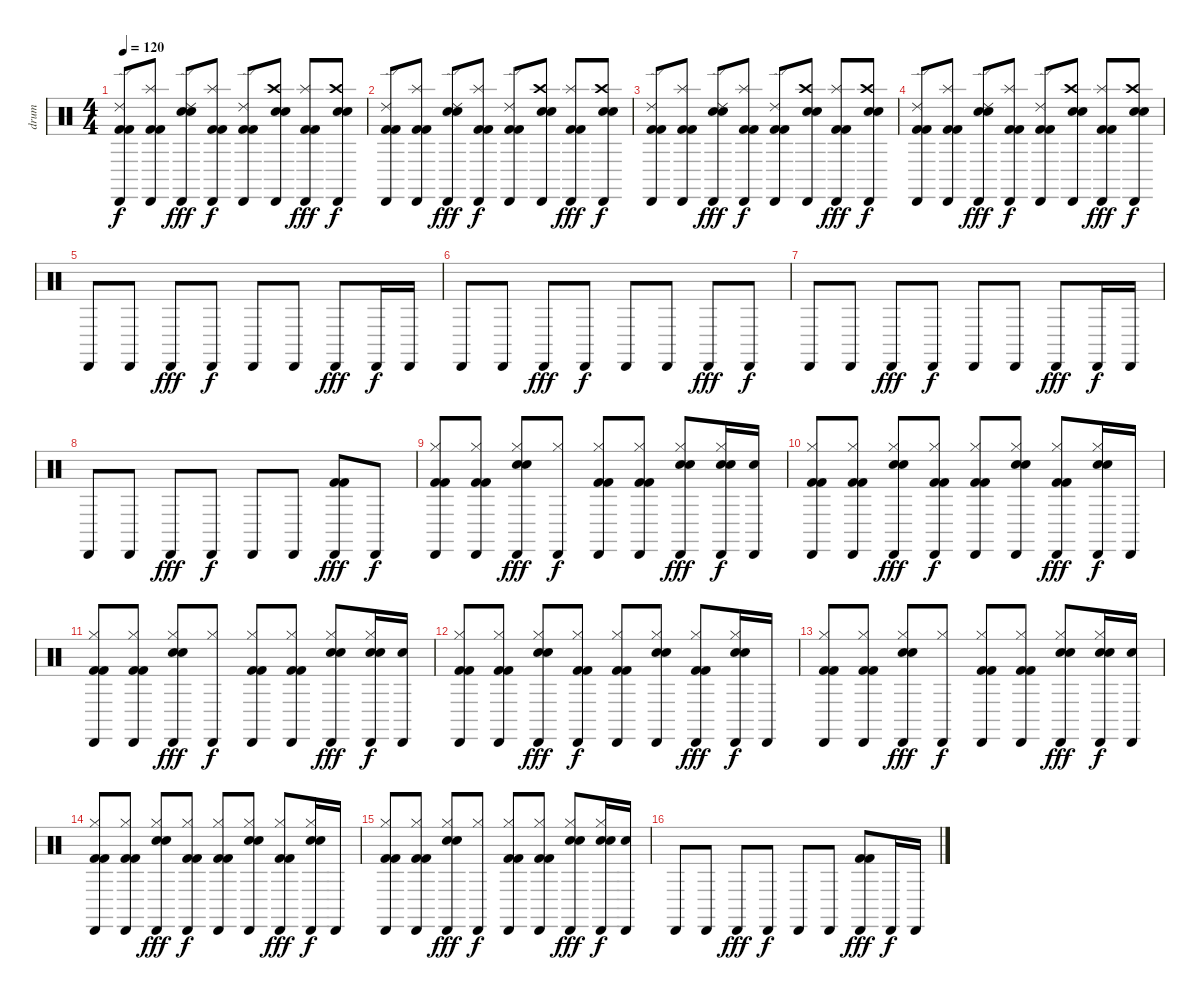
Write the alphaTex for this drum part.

\track ("drum" "drum") {instrument percussion}
\staff {score}
\articulation defaults
\ts (4 4)
\tempo 120
\clef neutral
\ks c
("Cabasa (hit)" "Ride (edge) 2" "Kick (hit) 2" "Kick (hit) 2").8{dy f} ("Cabasa (hit)" "Splash (hit)" "Kick (hit) 2" "Kick (hit) 2").8 ("Cabasa (hit)" "Ride (edge) 2" "Snare (hit) 2" "Snare (hit) 2").8{dy fff} ("Cabasa (hit)" "Splash (hit)" "Kick (hit) 2" "Kick (hit) 2").8{dy f} ("Cabasa (hit)" "Ride (edge) 2" "Kick (hit) 2" "Kick (hit) 2").8 ("Cabasa (hit)" "Crash high (hit)" "Snare (hit) 2" "Snare (hit) 2").8 ("Cabasa (hit)" "Splash (hit)" "Kick (hit) 2" "Kick (hit) 2").8{dy fff} ("Cabasa (hit)" "Crash high (hit)" "Snare (hit) 2" "Snare (hit) 2").8{dy f} |
("Cabasa (hit)" "Ride (edge) 2" "Kick (hit) 2" "Kick (hit) 2").8 ("Cabasa (hit)" "Splash (hit)" "Kick (hit) 2" "Kick (hit) 2").8 ("Cabasa (hit)" "Ride (edge) 2" "Snare (hit) 2" "Snare (hit) 2").8{dy fff} ("Cabasa (hit)" "Splash (hit)" "Kick (hit) 2" "Kick (hit) 2").8{dy f} ("Cabasa (hit)" "Ride (edge) 2" "Kick (hit) 2" "Kick (hit) 2").8 ("Cabasa (hit)" "Crash high (hit)" "Snare (hit) 2" "Snare (hit) 2").8 ("Cabasa (hit)" "Splash (hit)" "Kick (hit) 2" "Kick (hit) 2").8{dy fff} ("Cabasa (hit)" "Crash high (hit)" "Snare (hit) 2" "Snare (hit) 2").8{dy f} |
("Cabasa (hit)" "Ride (edge) 2" "Kick (hit) 2" "Kick (hit) 2").8 ("Cabasa (hit)" "Splash (hit)" "Kick (hit) 2" "Kick (hit) 2").8 ("Cabasa (hit)" "Ride (edge) 2" "Snare (hit) 2" "Snare (hit) 2").8{dy fff} ("Cabasa (hit)" "Splash (hit)" "Kick (hit) 2" "Kick (hit) 2").8{dy f} ("Cabasa (hit)" "Ride (edge) 2" "Kick (hit) 2" "Kick (hit) 2").8 ("Cabasa (hit)" "Crash high (hit)" "Snare (hit) 2" "Snare (hit) 2").8 ("Cabasa (hit)" "Splash (hit)" "Kick (hit) 2" "Kick (hit) 2").8{dy fff} ("Cabasa (hit)" "Crash high (hit)" "Snare (hit) 2" "Snare (hit) 2").8{dy f} |
("Cabasa (hit)" "Ride (edge) 2" "Kick (hit) 2" "Kick (hit) 2").8 ("Cabasa (hit)" "Splash (hit)" "Kick (hit) 2" "Kick (hit) 2").8 ("Cabasa (hit)" "Ride (edge) 2" "Snare (hit) 2" "Snare (hit) 2").8{dy fff} ("Cabasa (hit)" "Splash (hit)" "Kick (hit) 2" "Kick (hit) 2").8{dy f} ("Cabasa (hit)" "Ride (edge) 2" "Kick (hit) 2" "Kick (hit) 2").8 ("Cabasa (hit)" "Crash high (hit)" "Snare (hit) 2" "Snare (hit) 2").8 ("Cabasa (hit)" "Splash (hit)" "Kick (hit) 2" "Kick (hit) 2").8{dy fff} ("Cabasa (hit)" "Crash high (hit)" "Snare (hit) 2" "Snare (hit) 2").8{dy f} |
"Cabasa (hit)".8 "Cabasa (hit)".8 "Cabasa (hit)".8{dy fff} "Cabasa (hit)".8{dy f} "Cabasa (hit)".8 "Cabasa (hit)".8 "Cabasa (hit)".8{dy fff} "Cabasa (hit)".16{dy f} "Cabasa (hit)".16 |
"Cabasa (hit)".8 "Cabasa (hit)".8 "Cabasa (hit)".8{dy fff} "Cabasa (hit)".8{dy f} "Cabasa (hit)".8 "Cabasa (hit)".8 "Cabasa (hit)".8{dy fff} "Cabasa (hit)".8{dy f} |
"Cabasa (hit)".8 "Cabasa (hit)".8 "Cabasa (hit)".8{dy fff} "Cabasa (hit)".8{dy f} "Cabasa (hit)".8 "Cabasa (hit)".8 "Cabasa (hit)".8{dy fff} "Cabasa (hit)".16{dy f} "Cabasa (hit)".16 |
"Cabasa (hit)".8 "Cabasa (hit)".8 "Cabasa (hit)".8{dy fff} "Cabasa (hit)".8{dy f} "Cabasa (hit)".8 "Cabasa (hit)".8 ("Cabasa (hit)" "Kick (hit) 2" "Kick (hit) 2").8{dy fff} "Cabasa (hit)".8{dy f} |
("Cabasa (hit)" "Hi-Hat (closed)" "Kick (hit) 2" "Kick (hit) 2").8 ("Cabasa (hit)" "Hi-Hat (closed)" "Kick (hit) 2" "Kick (hit) 2").8 ("Cabasa (hit)" "Hi-Hat (closed)" "Snare (hit) 2" "Snare (hit) 2").8{dy fff} ("Cabasa (hit)" "Hi-Hat (closed)").8{dy f} ("Cabasa (hit)" "Hi-Hat (closed)" "Kick (hit) 2" "Kick (hit) 2").8 ("Cabasa (hit)" "Hi-Hat (closed)" "Kick (hit) 2" "Kick (hit) 2").8 ("Cabasa (hit)" "Hi-Hat (closed)" "Snare (hit) 2" "Snare (hit) 2").8{dy fff} ("Cabasa (hit)" "Hi-Hat (closed)" "Snare (hit) 2" "Snare (hit) 2").16{dy f} ("Cabasa (hit)" "Snare (hit) 2").16 |
("Cabasa (hit)" "Hi-Hat (closed)" "Kick (hit) 2" "Kick (hit) 2").8 ("Cabasa (hit)" "Hi-Hat (closed)" "Kick (hit) 2" "Kick (hit) 2").8 ("Cabasa (hit)" "Hi-Hat (closed)" "Snare (hit) 2" "Snare (hit) 2").8{dy fff} ("Cabasa (hit)" "Hi-Hat (closed)" "Kick (hit) 2" "Kick (hit) 2").8{dy f} ("Cabasa (hit)" "Hi-Hat (closed)" "Kick (hit) 2" "Kick (hit) 2").8 ("Cabasa (hit)" "Hi-Hat (closed)" "Snare (hit) 2" "Snare (hit) 2").8 ("Cabasa (hit)" "Hi-Hat (closed)" "Kick (hit) 2" "Kick (hit) 2").8{dy fff} ("Cabasa (hit)" "Hi-Hat (closed)" "Snare (hit) 2" "Snare (hit) 2").16{dy f} "Cabasa (hit)".16 |
("Cabasa (hit)" "Hi-Hat (closed)" "Kick (hit) 2" "Kick (hit) 2").8 ("Cabasa (hit)" "Hi-Hat (closed)" "Kick (hit) 2" "Kick (hit) 2").8 ("Cabasa (hit)" "Hi-Hat (closed)" "Snare (hit) 2" "Snare (hit) 2").8{dy fff} ("Cabasa (hit)" "Hi-Hat (closed)").8{dy f} ("Cabasa (hit)" "Hi-Hat (closed)" "Kick (hit) 2" "Kick (hit) 2").8 ("Cabasa (hit)" "Hi-Hat (closed)" "Kick (hit) 2" "Kick (hit) 2").8 ("Cabasa (hit)" "Hi-Hat (closed)" "Snare (hit) 2" "Snare (hit) 2").8{dy fff} ("Cabasa (hit)" "Hi-Hat (closed)" "Snare (hit) 2" "Snare (hit) 2").16{dy f} ("Cabasa (hit)" "Snare (hit) 2").16 |
("Cabasa (hit)" "Hi-Hat (closed)" "Kick (hit) 2" "Kick (hit) 2").8 ("Cabasa (hit)" "Hi-Hat (closed)" "Kick (hit) 2" "Kick (hit) 2").8 ("Cabasa (hit)" "Hi-Hat (closed)" "Snare (hit) 2" "Snare (hit) 2").8{dy fff} ("Cabasa (hit)" "Hi-Hat (closed)" "Kick (hit) 2" "Kick (hit) 2").8{dy f} ("Cabasa (hit)" "Hi-Hat (closed)" "Kick (hit) 2" "Kick (hit) 2").8 ("Cabasa (hit)" "Hi-Hat (closed)" "Snare (hit) 2" "Snare (hit) 2").8 ("Cabasa (hit)" "Hi-Hat (closed)" "Kick (hit) 2" "Kick (hit) 2").8{dy fff} ("Cabasa (hit)" "Hi-Hat (closed)" "Snare (hit) 2" "Snare (hit) 2").16{dy f} "Cabasa (hit)".16 |
("Cabasa (hit)" "Hi-Hat (closed)" "Kick (hit) 2" "Kick (hit) 2").8 ("Cabasa (hit)" "Hi-Hat (closed)" "Kick (hit) 2" "Kick (hit) 2").8 ("Cabasa (hit)" "Hi-Hat (closed)" "Snare (hit) 2" "Snare (hit) 2").8{dy fff} ("Cabasa (hit)" "Hi-Hat (closed)").8{dy f} ("Cabasa (hit)" "Hi-Hat (closed)" "Kick (hit) 2" "Kick (hit) 2").8 ("Cabasa (hit)" "Hi-Hat (closed)" "Kick (hit) 2" "Kick (hit) 2").8 ("Cabasa (hit)" "Hi-Hat (closed)" "Snare (hit) 2" "Snare (hit) 2").8{dy fff} ("Cabasa (hit)" "Hi-Hat (closed)" "Snare (hit) 2" "Snare (hit) 2").16{dy f} ("Cabasa (hit)" "Snare (hit) 2").16 |
("Cabasa (hit)" "Hi-Hat (closed)" "Kick (hit) 2" "Kick (hit) 2").8 ("Cabasa (hit)" "Hi-Hat (closed)" "Kick (hit) 2" "Kick (hit) 2").8 ("Cabasa (hit)" "Hi-Hat (closed)" "Snare (hit) 2" "Snare (hit) 2").8{dy fff} ("Cabasa (hit)" "Hi-Hat (closed)" "Kick (hit) 2" "Kick (hit) 2").8{dy f} ("Cabasa (hit)" "Hi-Hat (closed)" "Kick (hit) 2" "Kick (hit) 2").8 ("Cabasa (hit)" "Hi-Hat (closed)" "Snare (hit) 2" "Snare (hit) 2").8 ("Cabasa (hit)" "Hi-Hat (closed)" "Kick (hit) 2" "Kick (hit) 2").8{dy fff} ("Cabasa (hit)" "Hi-Hat (closed)" "Snare (hit) 2" "Snare (hit) 2").16{dy f} "Cabasa (hit)".16 |
("Cabasa (hit)" "Hi-Hat (closed)" "Kick (hit) 2" "Kick (hit) 2").8 ("Cabasa (hit)" "Hi-Hat (closed)" "Kick (hit) 2" "Kick (hit) 2").8 ("Cabasa (hit)" "Hi-Hat (closed)" "Snare (hit) 2" "Snare (hit) 2").8{dy fff} ("Cabasa (hit)" "Hi-Hat (closed)").8{dy f} ("Cabasa (hit)" "Hi-Hat (closed)" "Kick (hit) 2" "Kick (hit) 2").8 ("Cabasa (hit)" "Hi-Hat (closed)" "Kick (hit) 2" "Kick (hit) 2").8 ("Cabasa (hit)" "Hi-Hat (closed)" "Snare (hit) 2" "Snare (hit) 2").8{dy fff} ("Cabasa (hit)" "Hi-Hat (closed)" "Snare (hit) 2" "Snare (hit) 2").16{dy f} ("Cabasa (hit)" "Snare (hit) 2").16 |
"Cabasa (hit)".8 "Cabasa (hit)".8 "Cabasa (hit)".8{dy fff} "Cabasa (hit)".8{dy f} "Cabasa (hit)".8 "Cabasa (hit)".8 ("Cabasa (hit)" "Kick (hit) 2" "Kick (hit) 2").8{dy fff} "Cabasa (hit)".16{dy f} "Cabasa (hit)".16
